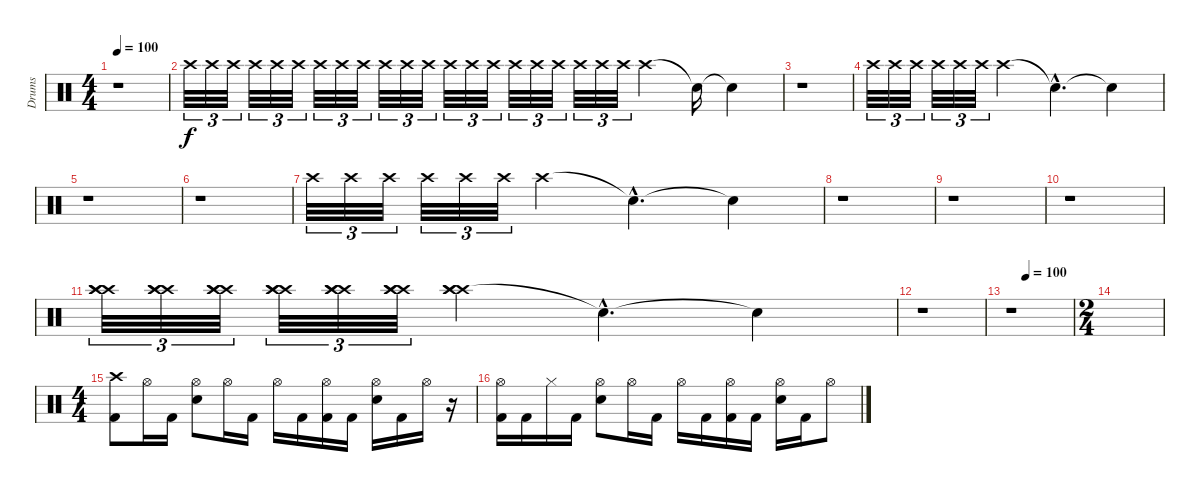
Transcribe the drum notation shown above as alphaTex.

\track ("Drums" "Drums") {instrument percussion}
\staff {score}
\articulation defaults
\ts (4 4)
\tempo 100
\clef neutral
\ks c
r.1{dy f} |
"Crash high (hit)".32{tu (3 2) volume 1} "Crash high (hit)".32{tu (3 2) volume 16} "Crash high (hit)".32{tu (3 2)} "Crash high (hit)".32{tu (3 2)} "Crash high (hit)".32{tu (3 2)} "Crash high (hit)".32{tu (3 2)} "Crash high (hit)".32{tu (3 2)} "Crash high (hit)".32{tu (3 2)} "Crash high (hit)".32{tu (3 2)} "Crash high (hit)".32{tu (3 2)} "Crash high (hit)".32{tu (3 2)} "Crash high (hit)".32{tu (3 2)} "Crash high (hit)".32{tu (3 2)} "Crash high (hit)".32{tu (3 2)} "Crash high (hit)".32{tu (3 2)} "Crash high (hit)".32{tu (3 2)} "Crash high (hit)".32{tu (3 2)} "Crash high (hit)".32{tu (3 2)} "Crash high (hit)".32{tu (3 2)} "Crash high (hit)".32{tu (3 2)} "Crash high (hit)".32{tu (3 2)} "Crash high (hit)".4 "Snare (hit)"{t}.16 "Snare (hit)"{t}.4 |
r.1 |
"Crash high (hit)".32{tu (3 2) volume 1} "Crash high (hit)".32{tu (3 2) volume 16} "Crash high (hit)".32{tu (3 2)} "Crash high (hit)".32{tu (3 2)} "Crash high (hit)".32{tu (3 2)} "Crash high (hit)".32{tu (3 2)} "Crash high (hit)".4 "Snare (hit)"{hac t}.4{d} "Snare (hit)"{t}.4 |
r.1 |
r.1 |
"Crash high (hit)".32{tu (3 2) volume 1} "Crash high (hit)".32{tu (3 2) volume 16} "Crash high (hit)".32{tu (3 2)} "Crash high (hit)".32{tu (3 2)} "Crash high (hit)".32{tu (3 2)} "Crash high (hit)".32{tu (3 2)} "Crash high (hit)".4 "Snare (hit)"{hac t}.4{d} "Snare (hit)"{t}.4 |
r.1 |
r.1 |
r.1 |
("Crash high (hit)" "Crash high (hit)" "Crash high (hit)").32{tu (3 2) volume 1} ("Crash high (hit)" "Crash high (hit)" "Crash high (hit)").32{tu (3 2) volume 16} ("Crash high (hit)" "Crash high (hit)" "Crash high (hit)").32{tu (3 2)} ("Crash high (hit)" "Crash high (hit)" "Crash high (hit)").32{tu (3 2)} ("Crash high (hit)" "Crash high (hit)" "Crash high (hit)").32{tu (3 2)} ("Crash high (hit)" "Crash high (hit)" "Crash high (hit)").32{tu (3 2)} ("Crash high (hit)" "Crash high (hit)" "Crash high (hit)").4 "Snare (hit)"{hac t}.4{d} "Snare (hit)"{t}.4 |
r.1 |
\tempo (100 0.25)
r.1 |
\ts (2 4)
|
\ts (4 4)
("Crash high (hit)" "Kick (hit) 2").8 "Hi-Hat (open)".16 "Kick (hit) 2".16 ("Hi-Hat (open)" "Snare (hit) 2").8 "Hi-Hat (open)".16 "Kick (hit) 2".16 "Hi-Hat (open)".16 "Kick (hit) 2".16 ("Hi-Hat (open)" "Kick (hit) 2").16 "Kick (hit) 2".16 ("Hi-Hat (open)" "Snare (hit) 2").16 "Kick (hit) 2".16 "Hi-Hat (open)".16 r.16 |
("Hi-Hat (open)" "Kick (hit) 2").16 "Kick (hit) 2".16 "Hi-Hat (closed)".16 "Kick (hit) 2".16 ("Hi-Hat (open)" "Snare (hit) 2").8 "Hi-Hat (open)".16 "Kick (hit) 2".16 "Hi-Hat (open)".16 "Kick (hit) 2".16 ("Hi-Hat (open)" "Kick (hit) 2").16 "Kick (hit) 2".16 ("Hi-Hat (open)" "Snare (hit) 2").16 "Kick (hit) 2".16 "Hi-Hat (open)".8
